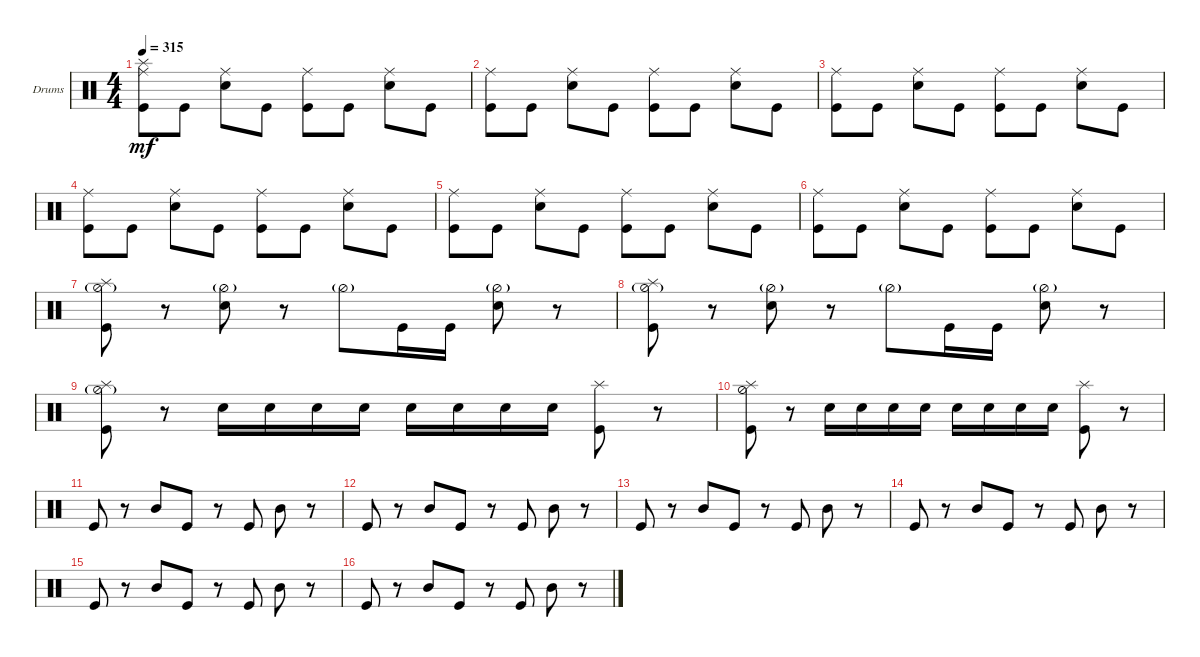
\bracketExtendMode groupsimilarinstruments
\firstSystemTrackNameOrientation horizontal
\otherSystemsTrackNameOrientation horizontal
\track ("Drumkit" "Drums") {instrument percussion}
\staff {score}
\articulation defaults
\ts (4 4)
\tempo 315
\clef neutral
\ks c
("Kick (hit)" "Splash (hit)" "Ride (middle)").8{dy mf} "Kick (hit)".8 ("Snare (hit) 2" "Ride (middle)").8 "Kick (hit)".8 ("Kick (hit)" "Ride (middle)").8 "Kick (hit)".8 ("Snare (hit) 2" "Ride (middle)").8 "Kick (hit)".8 |
("Kick (hit)" "Ride (middle)").8 "Kick (hit)".8 ("Snare (hit) 2" "Ride (middle)").8 "Kick (hit)".8 ("Kick (hit)" "Ride (middle)").8 "Kick (hit)".8 ("Snare (hit) 2" "Ride (middle)").8 "Kick (hit)".8 |
("Kick (hit)" "Ride (middle)").8 "Kick (hit)".8 ("Snare (hit) 2" "Ride (middle)").8 "Kick (hit)".8 ("Kick (hit)" "Ride (middle)").8 "Kick (hit)".8 ("Snare (hit) 2" "Ride (middle)").8 "Kick (hit)".8 |
("Kick (hit)" "Ride (middle)").8 "Kick (hit)".8 ("Snare (hit) 2" "Ride (middle)").8 "Kick (hit)".8 ("Kick (hit)" "Ride (middle)").8 "Kick (hit)".8 ("Snare (hit) 2" "Ride (middle)").8 "Kick (hit)".8 |
("Kick (hit)" "Ride (middle)").8 "Kick (hit)".8 ("Snare (hit) 2" "Ride (middle)").8 "Kick (hit)".8 ("Kick (hit)" "Ride (middle)").8 "Kick (hit)".8 ("Snare (hit) 2" "Ride (middle)").8 "Kick (hit)".8 |
("Kick (hit)" "Ride (middle)").8 "Kick (hit)".8 ("Snare (hit) 2" "Ride (middle)").8 "Kick (hit)".8 ("Kick (hit)" "Ride (middle)").8 "Kick (hit)".8 ("Snare (hit) 2" "Ride (middle)").8 "Kick (hit)".8 |
("Kick (hit)" "Splash (hit)" "Hi-Hat (half)"{g}).8 r.8 ("Snare (hit) 2" "Hi-Hat (half)"{g}).8 r.8 "Hi-Hat (half)"{g}.8 "Kick (hit)".16 "Kick (hit)".16 ("Snare (hit) 2" "Hi-Hat (half)"{g}).8 r.8 |
("Kick (hit)" "Splash (hit)" "Hi-Hat (half)"{g}).8 r.8 ("Snare (hit) 2" "Hi-Hat (half)"{g}).8 r.8 "Hi-Hat (half)"{g}.8 "Kick (hit)".16 "Kick (hit)".16 ("Snare (hit) 2" "Hi-Hat (half)"{g}).8 r.8 |
("Kick (hit)" "Splash (hit)" "Hi-Hat (half)"{g}).8 r.8 "Snare (hit) 2".16 "Snare (hit) 2".16 "Snare (hit) 2".16 "Snare (hit) 2".16 "Snare (hit) 2".16 "Snare (hit) 2".16 "Snare (hit) 2".16 "Snare (hit) 2".16 ("Kick (hit)" "Splash (hit)").8 r.8 |
("Kick (hit)" "Splash (hit)" "Hi-Hat (half)").8 r.8 "Snare (hit) 2".16 "Snare (hit) 2".16 "Snare (hit) 2".16 "Snare (hit) 2".16 "Snare (hit) 2".16 "Snare (hit) 2".16 "Snare (hit) 2".16 "Snare (hit) 2".16 ("Kick (hit)" "Splash (hit)").8 r.8 |
"Kick (hit)".8 r.8 "Mid Tom (hit)".8 "Kick (hit)".8 r.8 "Kick (hit)".8 "Mid Tom (hit)".8 r.8 |
"Kick (hit)".8 r.8 "Mid Tom (hit)".8 "Kick (hit)".8 r.8 "Kick (hit)".8 "Mid Tom (hit)".8 r.8 |
"Kick (hit)".8 r.8 "Mid Tom (hit)".8 "Kick (hit)".8 r.8 "Kick (hit)".8 "Mid Tom (hit)".8 r.8 |
"Kick (hit)".8 r.8 "Mid Tom (hit)".8 "Kick (hit)".8 r.8 "Kick (hit)".8 "Mid Tom (hit)".8 r.8 |
"Kick (hit)".8 r.8 "Mid Tom (hit)".8 "Kick (hit)".8 r.8 "Kick (hit)".8 "Mid Tom (hit)".8 r.8 |
"Kick (hit)".8 r.8 "Mid Tom (hit)".8 "Kick (hit)".8 r.8 "Kick (hit)".8 "Mid Tom (hit)".8 r.8
